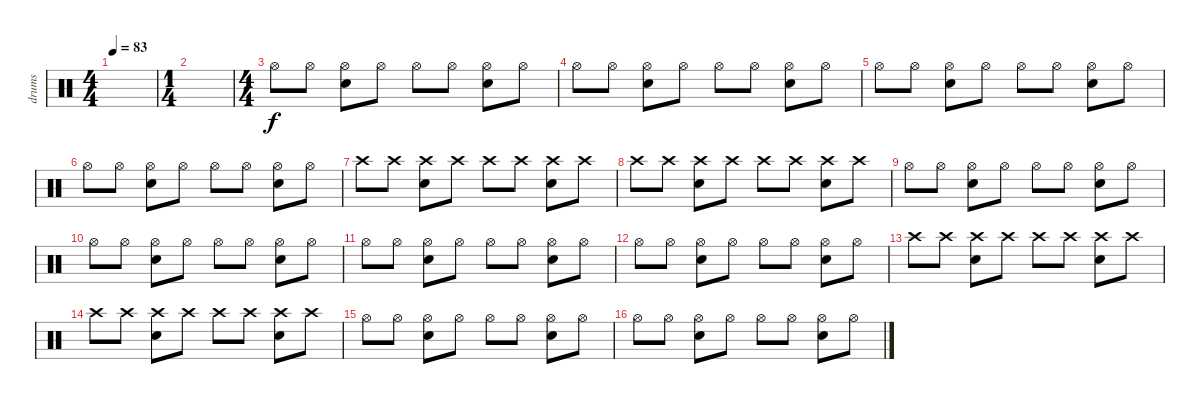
\track ("drums" "drums") {instrument percussion}
\staff {score}
\articulation defaults
\ts (4 4)
\tempo 83
\clef neutral
\ks c
|
\ts (1 4)
|
\ts (4 4)
"Hi-Hat (open)".8 "Hi-Hat (open)".8 ("Snare (hit) 2" "Hi-Hat (open)").8 "Hi-Hat (open)".8 "Hi-Hat (open)".8 "Hi-Hat (open)".8 ("Snare (hit) 2" "Hi-Hat (open)").8 "Hi-Hat (open)".8 |
"Hi-Hat (open)".8 "Hi-Hat (open)".8 ("Snare (hit) 2" "Hi-Hat (open)").8 "Hi-Hat (open)".8 "Hi-Hat (open)".8 "Hi-Hat (open)".8 ("Snare (hit) 2" "Hi-Hat (open)").8 "Hi-Hat (open)".8 |
"Hi-Hat (open)".8 "Hi-Hat (open)".8 ("Snare (hit) 2" "Hi-Hat (open)").8 "Hi-Hat (open)".8 "Hi-Hat (open)".8 "Hi-Hat (open)".8 ("Snare (hit) 2" "Hi-Hat (open)").8 "Hi-Hat (open)".8 |
"Hi-Hat (open)".8 "Hi-Hat (open)".8 ("Snare (hit) 2" "Hi-Hat (open)").8 "Hi-Hat (open)".8 "Hi-Hat (open)".8 "Hi-Hat (open)".8 ("Snare (hit) 2" "Hi-Hat (open)").8 "Hi-Hat (open)".8 |
"Crash high (hit)".8 "Crash high (hit)".8 ("Crash high (hit)" "Snare (hit) 2").8 "Crash high (hit)".8 "Crash high (hit)".8 "Crash high (hit)".8 ("Crash high (hit)" "Snare (hit) 2").8 "Crash high (hit)".8 |
"Crash high (hit)".8 "Crash high (hit)".8 ("Crash high (hit)" "Snare (hit) 2").8 "Crash high (hit)".8 "Crash high (hit)".8 "Crash high (hit)".8 ("Crash high (hit)" "Snare (hit) 2").8 "Crash high (hit)".8 |
"Hi-Hat (open)".8 "Hi-Hat (open)".8 ("Snare (hit) 2" "Hi-Hat (open)").8 "Hi-Hat (open)".8 "Hi-Hat (open)".8 "Hi-Hat (open)".8 ("Snare (hit) 2" "Hi-Hat (open)").8 "Hi-Hat (open)".8 |
"Hi-Hat (open)".8 "Hi-Hat (open)".8 ("Snare (hit) 2" "Hi-Hat (open)").8 "Hi-Hat (open)".8 "Hi-Hat (open)".8 "Hi-Hat (open)".8 ("Snare (hit) 2" "Hi-Hat (open)").8 "Hi-Hat (open)".8 |
"Hi-Hat (open)".8 "Hi-Hat (open)".8 ("Snare (hit) 2" "Hi-Hat (open)").8 "Hi-Hat (open)".8 "Hi-Hat (open)".8 "Hi-Hat (open)".8 ("Snare (hit) 2" "Hi-Hat (open)").8 "Hi-Hat (open)".8 |
"Hi-Hat (open)".8 "Hi-Hat (open)".8 ("Snare (hit) 2" "Hi-Hat (open)").8 "Hi-Hat (open)".8 "Hi-Hat (open)".8 "Hi-Hat (open)".8 ("Snare (hit) 2" "Hi-Hat (open)").8 "Hi-Hat (open)".8 |
"Crash high (hit)".8 "Crash high (hit)".8 ("Crash high (hit)" "Snare (hit) 2").8 "Crash high (hit)".8 "Crash high (hit)".8 "Crash high (hit)".8 ("Crash high (hit)" "Snare (hit) 2").8 "Crash high (hit)".8 |
"Crash high (hit)".8 "Crash high (hit)".8 ("Crash high (hit)" "Snare (hit) 2").8 "Crash high (hit)".8 "Crash high (hit)".8 "Crash high (hit)".8 ("Crash high (hit)" "Snare (hit) 2").8 "Crash high (hit)".8 |
"Hi-Hat (open)".8 "Hi-Hat (open)".8 ("Snare (hit) 2" "Hi-Hat (open)").8 "Hi-Hat (open)".8 "Hi-Hat (open)".8 "Hi-Hat (open)".8 ("Snare (hit) 2" "Hi-Hat (open)").8 "Hi-Hat (open)".8 |
"Hi-Hat (open)".8 "Hi-Hat (open)".8 ("Snare (hit) 2" "Hi-Hat (open)").8 "Hi-Hat (open)".8 "Hi-Hat (open)".8 "Hi-Hat (open)".8 ("Snare (hit) 2" "Hi-Hat (open)").8 "Hi-Hat (open)".8
